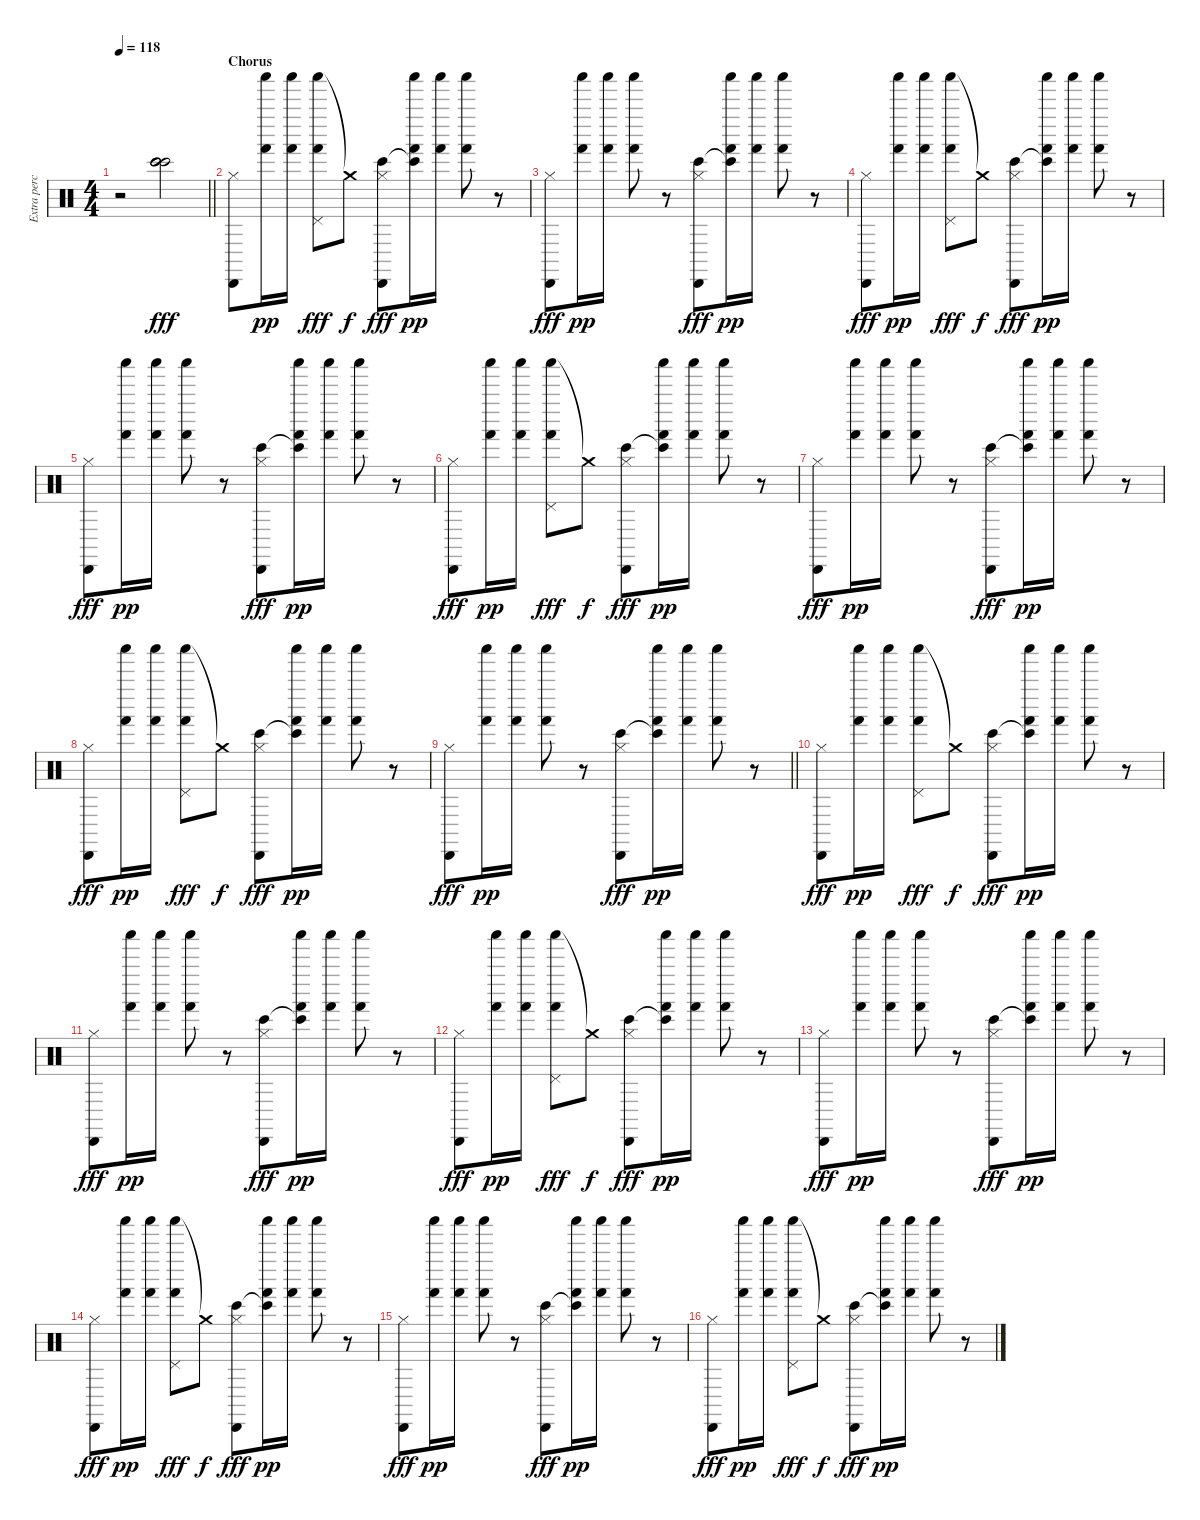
\track ("Extra percussion" "Extra perc") {instrument percussion}
\staff {score}
\articulation defaults
\ts (4 4)
\tempo 118
\clef neutral
\barLineRight lightlight
\ks c
r.2{dy pp} ("Bongo High (hit)" "Bongo High (hit)" "Bongo High (hit)" "Bongo High (hit)").2{dy fff} |
\section ("" "Chorus")
("Cabasa (hit)" "Hi-Hat (closed)").8 ("Shaker (hit)" "Hand (hit)").16{dy pp} ("Shaker (hit)" "Hand (hit)").16 ("Shaker (hit)" "Hand (hit)" "Pedal Hi-Hat (hit)").8{dy fff} "Crash medium (hit)"{t}.8{dy f} ("Cabasa (hit)" "Hi-Hat (closed)" "Bongo High (hit)").8{dy fff} ("Shaker (hit)" "Hand (hit)" "Bongo High (hit)"{t}).16{dy pp} ("Shaker (hit)" "Hand (hit)").16 ("Shaker (hit)" "Hand (hit)").8 r.8 |
("Cabasa (hit)" "Hi-Hat (closed)").8{dy fff} ("Shaker (hit)" "Hand (hit)").16{dy pp} ("Shaker (hit)" "Hand (hit)").16 ("Shaker (hit)" "Hand (hit)").8 r.8 ("Cabasa (hit)" "Hi-Hat (closed)" "Bongo High (hit)").8{dy fff} ("Shaker (hit)" "Hand (hit)" "Bongo High (hit)"{t}).16{dy pp} ("Shaker (hit)" "Hand (hit)").16 ("Shaker (hit)" "Hand (hit)").8 r.8 |
("Cabasa (hit)" "Hi-Hat (closed)").8{dy fff} ("Shaker (hit)" "Hand (hit)").16{dy pp} ("Shaker (hit)" "Hand (hit)").16 ("Shaker (hit)" "Hand (hit)" "Pedal Hi-Hat (hit)").8{dy fff} "Crash medium (hit)"{t}.8{dy f} ("Cabasa (hit)" "Hi-Hat (closed)" "Bongo High (hit)").8{dy fff} ("Shaker (hit)" "Hand (hit)" "Bongo High (hit)"{t}).16{dy pp} ("Shaker (hit)" "Hand (hit)").16 ("Shaker (hit)" "Hand (hit)").8 r.8 |
("Cabasa (hit)" "Hi-Hat (closed)").8{dy fff} ("Shaker (hit)" "Hand (hit)").16{dy pp} ("Shaker (hit)" "Hand (hit)").16 ("Shaker (hit)" "Hand (hit)").8 r.8 ("Cabasa (hit)" "Hi-Hat (closed)" "Bongo High (hit)").8{dy fff} ("Shaker (hit)" "Hand (hit)" "Bongo High (hit)"{t}).16{dy pp} ("Shaker (hit)" "Hand (hit)").16 ("Shaker (hit)" "Hand (hit)").8 r.8 |
("Cabasa (hit)" "Hi-Hat (closed)").8{dy fff} ("Shaker (hit)" "Hand (hit)").16{dy pp} ("Shaker (hit)" "Hand (hit)").16 ("Shaker (hit)" "Hand (hit)" "Pedal Hi-Hat (hit)").8{dy fff} "Crash medium (hit)"{t}.8{dy f} ("Cabasa (hit)" "Hi-Hat (closed)" "Bongo High (hit)").8{dy fff} ("Shaker (hit)" "Hand (hit)" "Bongo High (hit)"{t}).16{dy pp} ("Shaker (hit)" "Hand (hit)").16 ("Shaker (hit)" "Hand (hit)").8 r.8 |
("Cabasa (hit)" "Hi-Hat (closed)").8{dy fff} ("Shaker (hit)" "Hand (hit)").16{dy pp} ("Shaker (hit)" "Hand (hit)").16 ("Shaker (hit)" "Hand (hit)").8 r.8 ("Cabasa (hit)" "Hi-Hat (closed)" "Bongo High (hit)").8{dy fff} ("Shaker (hit)" "Hand (hit)" "Bongo High (hit)"{t}).16{dy pp} ("Shaker (hit)" "Hand (hit)").16 ("Shaker (hit)" "Hand (hit)").8 r.8 |
("Cabasa (hit)" "Hi-Hat (closed)").8{dy fff} ("Shaker (hit)" "Hand (hit)").16{dy pp} ("Shaker (hit)" "Hand (hit)").16 ("Shaker (hit)" "Hand (hit)" "Pedal Hi-Hat (hit)").8{dy fff} "Crash medium (hit)"{t}.8{dy f} ("Cabasa (hit)" "Hi-Hat (closed)" "Bongo High (hit)").8{dy fff} ("Shaker (hit)" "Hand (hit)" "Bongo High (hit)"{t}).16{dy pp} ("Shaker (hit)" "Hand (hit)").16 ("Shaker (hit)" "Hand (hit)").8 r.8 |
\barLineRight lightlight
("Cabasa (hit)" "Hi-Hat (closed)").8{dy fff} ("Shaker (hit)" "Hand (hit)").16{dy pp} ("Shaker (hit)" "Hand (hit)").16 ("Shaker (hit)" "Hand (hit)").8 r.8 ("Cabasa (hit)" "Hi-Hat (closed)" "Bongo High (hit)").8{dy fff} ("Shaker (hit)" "Hand (hit)" "Bongo High (hit)"{t}).16{dy pp} ("Shaker (hit)" "Hand (hit)").16 ("Shaker (hit)" "Hand (hit)").8 r.8 |
("Cabasa (hit)" "Hi-Hat (closed)").8{dy fff} ("Shaker (hit)" "Hand (hit)").16{dy pp} ("Shaker (hit)" "Hand (hit)").16 ("Shaker (hit)" "Hand (hit)" "Pedal Hi-Hat (hit)").8{dy fff} "Crash medium (hit)"{t}.8{dy f} ("Cabasa (hit)" "Hi-Hat (closed)" "Bongo High (hit)").8{dy fff} ("Shaker (hit)" "Hand (hit)" "Bongo High (hit)"{t}).16{dy pp} ("Shaker (hit)" "Hand (hit)").16 ("Shaker (hit)" "Hand (hit)").8 r.8 |
("Cabasa (hit)" "Hi-Hat (closed)").8{dy fff} ("Shaker (hit)" "Hand (hit)").16{dy pp} ("Shaker (hit)" "Hand (hit)").16 ("Shaker (hit)" "Hand (hit)").8 r.8 ("Cabasa (hit)" "Hi-Hat (closed)" "Bongo High (hit)").8{dy fff} ("Shaker (hit)" "Hand (hit)" "Bongo High (hit)"{t}).16{dy pp} ("Shaker (hit)" "Hand (hit)").16 ("Shaker (hit)" "Hand (hit)").8 r.8 |
("Cabasa (hit)" "Hi-Hat (closed)").8{dy fff} ("Shaker (hit)" "Hand (hit)").16{dy pp} ("Shaker (hit)" "Hand (hit)").16 ("Shaker (hit)" "Hand (hit)" "Pedal Hi-Hat (hit)").8{dy fff} "Crash medium (hit)"{t}.8{dy f} ("Cabasa (hit)" "Hi-Hat (closed)" "Bongo High (hit)").8{dy fff} ("Shaker (hit)" "Hand (hit)" "Bongo High (hit)"{t}).16{dy pp} ("Shaker (hit)" "Hand (hit)").16 ("Shaker (hit)" "Hand (hit)").8 r.8 |
("Cabasa (hit)" "Hi-Hat (closed)").8{dy fff} ("Shaker (hit)" "Hand (hit)").16{dy pp} ("Shaker (hit)" "Hand (hit)").16 ("Shaker (hit)" "Hand (hit)").8 r.8 ("Cabasa (hit)" "Hi-Hat (closed)" "Bongo High (hit)").8{dy fff} ("Shaker (hit)" "Hand (hit)" "Bongo High (hit)"{t}).16{dy pp} ("Shaker (hit)" "Hand (hit)").16 ("Shaker (hit)" "Hand (hit)").8 r.8 |
("Cabasa (hit)" "Hi-Hat (closed)").8{dy fff} ("Shaker (hit)" "Hand (hit)").16{dy pp} ("Shaker (hit)" "Hand (hit)").16 ("Shaker (hit)" "Hand (hit)" "Pedal Hi-Hat (hit)").8{dy fff} "Crash medium (hit)"{t}.8{dy f} ("Cabasa (hit)" "Hi-Hat (closed)" "Bongo High (hit)").8{dy fff} ("Shaker (hit)" "Hand (hit)" "Bongo High (hit)"{t}).16{dy pp} ("Shaker (hit)" "Hand (hit)").16 ("Shaker (hit)" "Hand (hit)").8 r.8 |
("Cabasa (hit)" "Hi-Hat (closed)").8{dy fff} ("Shaker (hit)" "Hand (hit)").16{dy pp} ("Shaker (hit)" "Hand (hit)").16 ("Shaker (hit)" "Hand (hit)").8 r.8 ("Cabasa (hit)" "Hi-Hat (closed)" "Bongo High (hit)").8{dy fff} ("Shaker (hit)" "Hand (hit)" "Bongo High (hit)"{t}).16{dy pp} ("Shaker (hit)" "Hand (hit)").16 ("Shaker (hit)" "Hand (hit)").8 r.8 |
("Cabasa (hit)" "Hi-Hat (closed)").8{dy fff} ("Shaker (hit)" "Hand (hit)").16{dy pp} ("Shaker (hit)" "Hand (hit)").16 ("Shaker (hit)" "Hand (hit)" "Pedal Hi-Hat (hit)").8{dy fff} "Crash medium (hit)"{t}.8{dy f} ("Cabasa (hit)" "Hi-Hat (closed)" "Bongo High (hit)").8{dy fff} ("Shaker (hit)" "Hand (hit)" "Bongo High (hit)"{t}).16{dy pp} ("Shaker (hit)" "Hand (hit)").16 ("Shaker (hit)" "Hand (hit)").8 r.8
